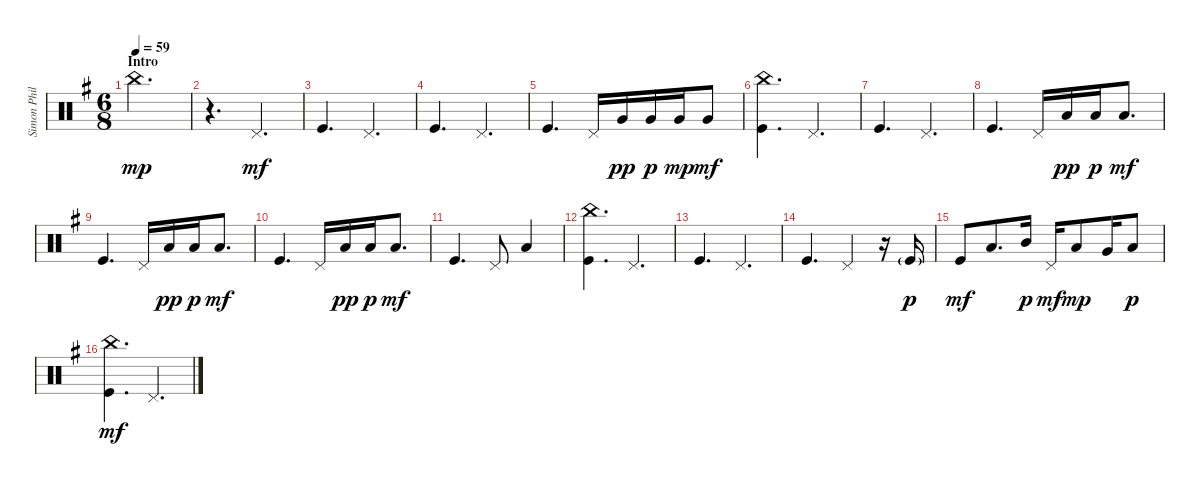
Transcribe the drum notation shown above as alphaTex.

\track ("Simon Phillips" "Simon Phil") {instrument percussion}
\staff {score}
\articulation defaults
\ts (6 8)
\section ("" "Intro")
\tempo 59
\clef neutral
\ks eminor "China (hit)".2{d dy mp}
|
r.4{d} "Pedal Hi-Hat (hit)".4{d dy mf} |
"Kick (hit)".4{d} "Pedal Hi-Hat (hit)".4{d} |
"Kick (hit)".4{d} "Pedal Hi-Hat (hit)".4{d} |
"Kick (hit)".4{d} "Pedal Hi-Hat (hit)".16 "Very Low Tom (hit)".16{dy pp} "Very Low Tom (hit)".16{dy p} "Very Low Tom (hit)".16{dy mp} "Very Low Tom (hit)".8{dy mf} |
("China (hit)" "Kick (hit)").4{d} "Pedal Hi-Hat (hit)".4{d} |
"Kick (hit)".4{d} "Pedal Hi-Hat (hit)".4{d} |
"Kick (hit)".4{d} "Pedal Hi-Hat (hit)".16 "Low Tom (hit)".16{dy pp} "Low Tom (hit)".16{dy p} "Low Tom (hit)".8{d dy mf} |
"Kick (hit)".4{d} "Pedal Hi-Hat (hit)".16 "Low Tom (hit)".16{dy pp} "Low Tom (hit)".16{dy p} "Low Tom (hit)".8{d dy mf} |
"Kick (hit)".4{d} "Pedal Hi-Hat (hit)".16 "Low Tom (hit)".16{dy pp} "Low Tom (hit)".16{dy p} "Low Tom (hit)".8{d dy mf} |
"Kick (hit)".4{d} "Pedal Hi-Hat (hit)".8 "Low Tom (hit)".4 |
("China (hit)" "Kick (hit)").4{d} "Pedal Hi-Hat (hit)".4{d} |
"Kick (hit)".4{d} "Pedal Hi-Hat (hit)".4{d} |
"Kick (hit)".4{d} "Pedal Hi-Hat (hit)".4 r.16 "Kick (hit)"{g}.16{dy p} |
"Kick (hit)".8{dy mf} "Low Floor Tom (hit)".8{d} "Mid Tom (hit)".16{dy p} "Pedal Hi-Hat (hit)".16{dy mf} "Low Tom (hit)".8{dy mp} "Very Low Tom (hit)".16 "Low Floor Tom (hit)".8{dy p} |
("China (hit)" "Kick (hit)").4{d dy mf} "Pedal Hi-Hat (hit)".4{d}
